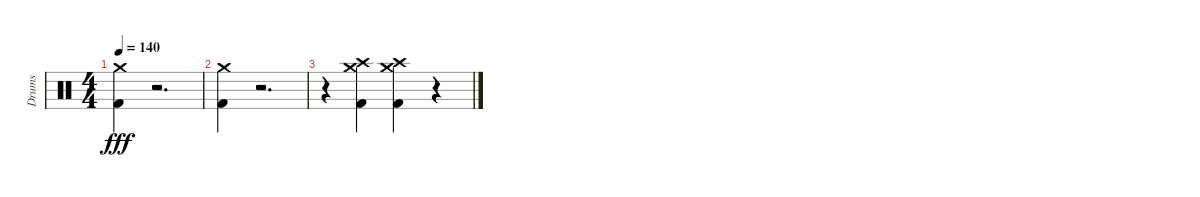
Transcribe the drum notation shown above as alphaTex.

\track ("Drums" "Drums") {instrument percussion}
\staff {score}
\articulation defaults
\ts (4 4)
\tempo 140
\clef neutral
\ks c
("Kick (hit) 2" "Crash medium (hit)").4{dy fff} r.2{d} |
("Kick (hit) 2" "Crash medium (hit)").4 r.2{d} |
r.4 ("Kick (hit) 2" "Crash high (hit)" "Crash medium (hit)").4 ("Kick (hit) 2" "Crash high (hit)" "Crash medium (hit)").4 r.4
